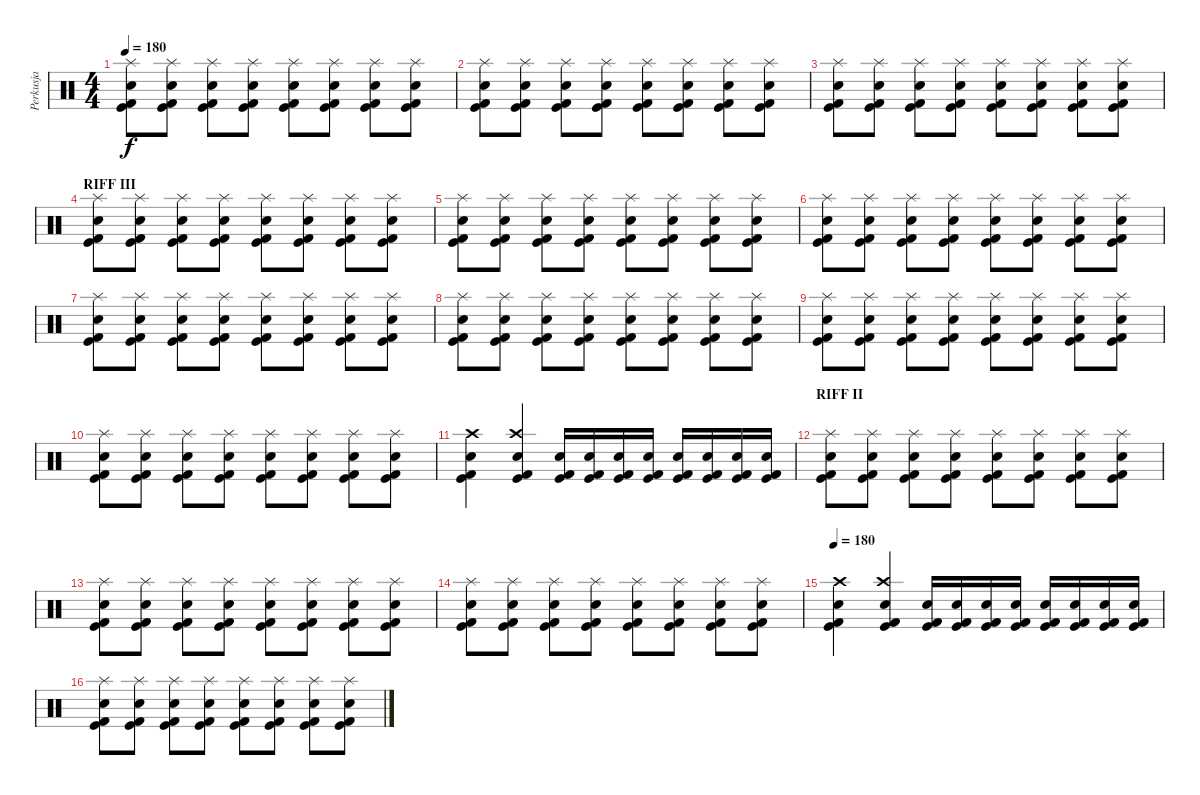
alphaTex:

\track ("Perkusja" "Perkusja") {instrument percussion}
\staff {score}
\articulation defaults
\ts (4 4)
\tempo 180
\clef neutral
\ks c
("Kick (hit)" "Kick (hit) 2" "Snare (hit) 2" "Splash (hit)").8{dy f} ("Kick (hit)" "Kick (hit) 2" "Snare (hit) 2" "Splash (hit)").8 ("Kick (hit)" "Kick (hit) 2" "Snare (hit) 2" "Splash (hit)").8 ("Kick (hit)" "Kick (hit) 2" "Snare (hit) 2" "Splash (hit)").8 ("Kick (hit)" "Kick (hit) 2" "Snare (hit) 2" "Splash (hit)").8 ("Kick (hit)" "Kick (hit) 2" "Snare (hit) 2" "Splash (hit)").8 ("Kick (hit)" "Kick (hit) 2" "Snare (hit) 2" "Splash (hit)").8 ("Kick (hit)" "Kick (hit) 2" "Snare (hit) 2" "Splash (hit)").8 |
("Kick (hit)" "Kick (hit) 2" "Snare (hit) 2" "Splash (hit)").8 ("Kick (hit)" "Kick (hit) 2" "Snare (hit) 2" "Splash (hit)").8 ("Kick (hit)" "Kick (hit) 2" "Snare (hit) 2" "Splash (hit)").8 ("Kick (hit)" "Kick (hit) 2" "Snare (hit) 2" "Splash (hit)").8 ("Kick (hit)" "Kick (hit) 2" "Snare (hit) 2" "Splash (hit)").8 ("Kick (hit)" "Kick (hit) 2" "Snare (hit) 2" "Splash (hit)").8 ("Kick (hit)" "Kick (hit) 2" "Snare (hit) 2" "Splash (hit)").8 ("Kick (hit)" "Kick (hit) 2" "Snare (hit) 2" "Splash (hit)").8 |
("Kick (hit)" "Kick (hit) 2" "Snare (hit) 2" "Splash (hit)").8 ("Kick (hit)" "Kick (hit) 2" "Snare (hit) 2" "Splash (hit)").8 ("Kick (hit)" "Kick (hit) 2" "Snare (hit) 2" "Splash (hit)").8 ("Kick (hit)" "Kick (hit) 2" "Snare (hit) 2" "Splash (hit)").8 ("Kick (hit)" "Kick (hit) 2" "Snare (hit) 2" "Splash (hit)").8 ("Kick (hit)" "Kick (hit) 2" "Snare (hit) 2" "Splash (hit)").8 ("Kick (hit)" "Kick (hit) 2" "Snare (hit) 2" "Splash (hit)").8 ("Kick (hit)" "Kick (hit) 2" "Snare (hit) 2" "Splash (hit)").8 |
\section ("" "RIFF III")
("Kick (hit)" "Kick (hit) 2" "Snare (hit) 2" "Splash (hit)").8 ("Kick (hit)" "Kick (hit) 2" "Snare (hit) 2" "Splash (hit)").8 ("Kick (hit)" "Kick (hit) 2" "Snare (hit) 2" "Splash (hit)").8 ("Kick (hit)" "Kick (hit) 2" "Snare (hit) 2" "Splash (hit)").8 ("Kick (hit)" "Kick (hit) 2" "Snare (hit) 2" "Splash (hit)").8 ("Kick (hit)" "Kick (hit) 2" "Snare (hit) 2" "Splash (hit)").8 ("Kick (hit)" "Kick (hit) 2" "Snare (hit) 2" "Splash (hit)").8 ("Kick (hit)" "Kick (hit) 2" "Snare (hit) 2" "Splash (hit)").8 |
("Kick (hit)" "Kick (hit) 2" "Snare (hit) 2" "Splash (hit)").8 ("Kick (hit)" "Kick (hit) 2" "Snare (hit) 2" "Splash (hit)").8 ("Kick (hit)" "Kick (hit) 2" "Snare (hit) 2" "Splash (hit)").8 ("Kick (hit)" "Kick (hit) 2" "Snare (hit) 2" "Splash (hit)").8 ("Kick (hit)" "Kick (hit) 2" "Snare (hit) 2" "Splash (hit)").8 ("Kick (hit)" "Kick (hit) 2" "Snare (hit) 2" "Splash (hit)").8 ("Kick (hit)" "Kick (hit) 2" "Snare (hit) 2" "Splash (hit)").8 ("Kick (hit)" "Kick (hit) 2" "Snare (hit) 2" "Splash (hit)").8 |
("Kick (hit)" "Kick (hit) 2" "Snare (hit) 2" "Splash (hit)").8 ("Kick (hit)" "Kick (hit) 2" "Snare (hit) 2" "Splash (hit)").8 ("Kick (hit)" "Kick (hit) 2" "Snare (hit) 2" "Splash (hit)").8 ("Kick (hit)" "Kick (hit) 2" "Snare (hit) 2" "Splash (hit)").8 ("Kick (hit)" "Kick (hit) 2" "Snare (hit) 2" "Splash (hit)").8 ("Kick (hit)" "Kick (hit) 2" "Snare (hit) 2" "Splash (hit)").8 ("Kick (hit)" "Kick (hit) 2" "Snare (hit) 2" "Splash (hit)").8 ("Kick (hit)" "Kick (hit) 2" "Snare (hit) 2" "Splash (hit)").8 |
("Kick (hit)" "Kick (hit) 2" "Snare (hit) 2" "Splash (hit)").8 ("Kick (hit)" "Kick (hit) 2" "Snare (hit) 2" "Splash (hit)").8 ("Kick (hit)" "Kick (hit) 2" "Snare (hit) 2" "Splash (hit)").8 ("Kick (hit)" "Kick (hit) 2" "Snare (hit) 2" "Splash (hit)").8 ("Kick (hit)" "Kick (hit) 2" "Snare (hit) 2" "Splash (hit)").8 ("Kick (hit)" "Kick (hit) 2" "Snare (hit) 2" "Splash (hit)").8 ("Kick (hit)" "Kick (hit) 2" "Snare (hit) 2" "Splash (hit)").8 ("Kick (hit)" "Kick (hit) 2" "Snare (hit) 2" "Splash (hit)").8 |
("Kick (hit)" "Kick (hit) 2" "Snare (hit) 2" "Splash (hit)").8 ("Kick (hit)" "Kick (hit) 2" "Snare (hit) 2" "Splash (hit)").8 ("Kick (hit)" "Kick (hit) 2" "Snare (hit) 2" "Splash (hit)").8 ("Kick (hit)" "Kick (hit) 2" "Snare (hit) 2" "Splash (hit)").8 ("Kick (hit)" "Kick (hit) 2" "Snare (hit) 2" "Splash (hit)").8 ("Kick (hit)" "Kick (hit) 2" "Snare (hit) 2" "Splash (hit)").8 ("Kick (hit)" "Kick (hit) 2" "Snare (hit) 2" "Splash (hit)").8 ("Kick (hit)" "Kick (hit) 2" "Snare (hit) 2" "Splash (hit)").8 |
("Kick (hit)" "Kick (hit) 2" "Snare (hit) 2" "Splash (hit)").8 ("Kick (hit)" "Kick (hit) 2" "Snare (hit) 2" "Splash (hit)").8 ("Kick (hit)" "Kick (hit) 2" "Snare (hit) 2" "Splash (hit)").8 ("Kick (hit)" "Kick (hit) 2" "Snare (hit) 2" "Splash (hit)").8 ("Kick (hit)" "Kick (hit) 2" "Snare (hit) 2" "Splash (hit)").8 ("Kick (hit)" "Kick (hit) 2" "Snare (hit) 2" "Splash (hit)").8 ("Kick (hit)" "Kick (hit) 2" "Snare (hit) 2" "Splash (hit)").8 ("Kick (hit)" "Kick (hit) 2" "Snare (hit) 2" "Splash (hit)").8 |
("Kick (hit)" "Kick (hit) 2" "Snare (hit) 2" "Splash (hit)").8 ("Kick (hit)" "Kick (hit) 2" "Snare (hit) 2" "Splash (hit)").8 ("Kick (hit)" "Kick (hit) 2" "Snare (hit) 2" "Splash (hit)").8 ("Kick (hit)" "Kick (hit) 2" "Snare (hit) 2" "Splash (hit)").8 ("Kick (hit)" "Kick (hit) 2" "Snare (hit) 2" "Splash (hit)").8 ("Kick (hit)" "Kick (hit) 2" "Snare (hit) 2" "Splash (hit)").8 ("Kick (hit)" "Kick (hit) 2" "Snare (hit) 2" "Splash (hit)").8 ("Kick (hit)" "Kick (hit) 2" "Snare (hit) 2" "Splash (hit)").8 |
("Crash high (hit)" "Snare (hit) 2" "Kick (hit) 2" "Kick (hit)").4 ("Crash high (hit)" "Electric Snare (hit)" "Kick (hit) 2" "Kick (hit)").4 ("Snare (hit) 2" "Kick (hit) 2" "Kick (hit)").16 ("Snare (hit) 2" "Kick (hit) 2" "Kick (hit)").16 ("Snare (hit) 2" "Kick (hit) 2" "Kick (hit)").16 ("Snare (hit) 2" "Kick (hit) 2" "Kick (hit)").16 ("Snare (hit) 2" "Kick (hit) 2" "Kick (hit)").16 ("Snare (hit) 2" "Kick (hit) 2" "Kick (hit)").16 ("Snare (hit) 2" "Kick (hit) 2" "Kick (hit)").16 ("Snare (hit) 2" "Kick (hit) 2" "Kick (hit)").16 |
\section ("" "RIFF II")
("Kick (hit)" "Kick (hit) 2" "Snare (hit) 2" "Splash (hit)").8 ("Kick (hit)" "Kick (hit) 2" "Snare (hit) 2" "Splash (hit)").8 ("Kick (hit)" "Kick (hit) 2" "Snare (hit) 2" "Splash (hit)").8 ("Kick (hit)" "Kick (hit) 2" "Snare (hit) 2" "Splash (hit)").8 ("Kick (hit)" "Kick (hit) 2" "Snare (hit) 2" "Splash (hit)").8 ("Kick (hit)" "Kick (hit) 2" "Snare (hit) 2" "Splash (hit)").8 ("Kick (hit)" "Kick (hit) 2" "Snare (hit) 2" "Splash (hit)").8 ("Kick (hit)" "Kick (hit) 2" "Snare (hit) 2" "Splash (hit)").8 |
("Kick (hit)" "Kick (hit) 2" "Snare (hit) 2" "Splash (hit)").8 ("Kick (hit)" "Kick (hit) 2" "Snare (hit) 2" "Splash (hit)").8 ("Kick (hit)" "Kick (hit) 2" "Snare (hit) 2" "Splash (hit)").8 ("Kick (hit)" "Kick (hit) 2" "Snare (hit) 2" "Splash (hit)").8 ("Kick (hit)" "Kick (hit) 2" "Snare (hit) 2" "Splash (hit)").8 ("Kick (hit)" "Kick (hit) 2" "Snare (hit) 2" "Splash (hit)").8 ("Kick (hit)" "Kick (hit) 2" "Snare (hit) 2" "Splash (hit)").8 ("Kick (hit)" "Kick (hit) 2" "Snare (hit) 2" "Splash (hit)").8 |
("Kick (hit)" "Kick (hit) 2" "Snare (hit) 2" "Splash (hit)").8 ("Kick (hit)" "Kick (hit) 2" "Snare (hit) 2" "Splash (hit)").8 ("Kick (hit)" "Kick (hit) 2" "Snare (hit) 2" "Splash (hit)").8 ("Kick (hit)" "Kick (hit) 2" "Snare (hit) 2" "Splash (hit)").8 ("Kick (hit)" "Kick (hit) 2" "Snare (hit) 2" "Splash (hit)").8 ("Kick (hit)" "Kick (hit) 2" "Snare (hit) 2" "Splash (hit)").8 ("Kick (hit)" "Kick (hit) 2" "Snare (hit) 2" "Splash (hit)").8 ("Kick (hit)" "Kick (hit) 2" "Snare (hit) 2" "Splash (hit)").8 |
\tempo 180
("Crash high (hit)" "Snare (hit) 2" "Kick (hit) 2" "Kick (hit)").4 ("Crash high (hit)" "Electric Snare (hit)" "Kick (hit) 2" "Kick (hit)").4 ("Snare (hit) 2" "Kick (hit) 2" "Kick (hit)").16 ("Snare (hit) 2" "Kick (hit) 2" "Kick (hit)").16 ("Snare (hit) 2" "Kick (hit) 2" "Kick (hit)").16 ("Snare (hit) 2" "Kick (hit) 2" "Kick (hit)").16 ("Snare (hit) 2" "Kick (hit) 2" "Kick (hit)").16 ("Snare (hit) 2" "Kick (hit) 2" "Kick (hit)").16 ("Snare (hit) 2" "Kick (hit) 2" "Kick (hit)").16 ("Snare (hit) 2" "Kick (hit) 2" "Kick (hit)").16 |
("Kick (hit)" "Kick (hit) 2" "Snare (hit) 2" "Splash (hit)").8 ("Kick (hit)" "Kick (hit) 2" "Snare (hit) 2" "Splash (hit)").8 ("Kick (hit)" "Kick (hit) 2" "Snare (hit) 2" "Splash (hit)").8 ("Kick (hit)" "Kick (hit) 2" "Snare (hit) 2" "Splash (hit)").8 ("Kick (hit)" "Kick (hit) 2" "Snare (hit) 2" "Splash (hit)").8 ("Kick (hit)" "Kick (hit) 2" "Snare (hit) 2" "Splash (hit)").8 ("Kick (hit)" "Kick (hit) 2" "Snare (hit) 2" "Splash (hit)").8 ("Kick (hit)" "Kick (hit) 2" "Snare (hit) 2" "Splash (hit)").8
